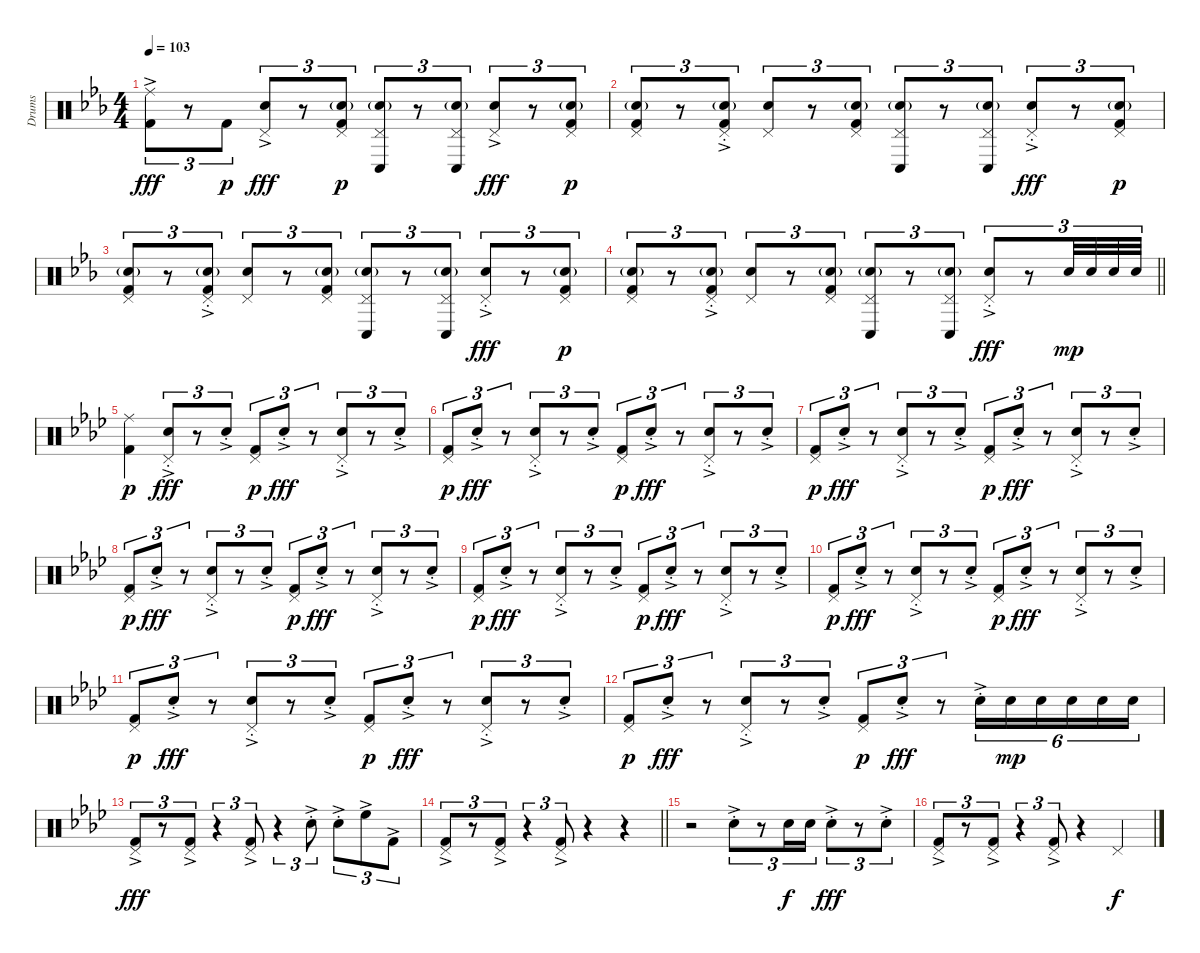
\track ("Drums" "Drums") {instrument percussion}
\staff {score}
\articulation defaults
\ts (4 4)
\tempo 103
\clef neutral
\ks eb
("Ride (middle)"{ac} "Kick (hit) 2"{ac}).8{tu (3 2) dy fff} r.8{tu (3 2)} "Kick (hit) 2".8{tu (3 2) dy p} ("Pedal Hi-Hat (hit)"{ac} "Snare (hit) 2"{ac}).8{tu (3 2) dy fff} r.8{tu (3 2)} ("Pedal Hi-Hat (hit)" "Snare (hit) 2"{g} "Kick (hit) 2").8{tu (3 2) dy p} ("Pedal Hi-Hat (hit)" "Snare (hit) 2"{g} "Conga low (hit)").8{tu (3 2)} r.8{tu (3 2)} ("Pedal Hi-Hat (hit)" "Snare (hit) 2"{g} "Conga low (hit)").8{tu (3 2)} ("Pedal Hi-Hat (hit)"{ac} "Snare (hit) 2"{ac}).8{tu (3 2) dy fff} r.8{tu (3 2)} ("Pedal Hi-Hat (hit)" "Snare (hit) 2"{g} "Kick (hit) 2").8{tu (3 2) dy p} |
("Pedal Hi-Hat (hit)" "Snare (hit) 2"{g} "Kick (hit) 2").8{tu (3 2)} r.8{tu (3 2)} ("Pedal Hi-Hat (hit)"{ac st} "Snare (hit) 2"{g} "Kick (hit) 2").8{tu (3 2)} ("Pedal Hi-Hat (hit)" "Snare (hit) 2").8{tu (3 2)} r.8{tu (3 2)} ("Pedal Hi-Hat (hit)" "Snare (hit) 2"{g} "Kick (hit) 2").8{tu (3 2)} ("Pedal Hi-Hat (hit)" "Snare (hit) 2"{g} "Conga low (hit)").8{tu (3 2)} r.8{tu (3 2)} ("Pedal Hi-Hat (hit)" "Snare (hit) 2"{g} "Conga low (hit)").8{tu (3 2)} ("Pedal Hi-Hat (hit)"{ac st} "Snare (hit) 2"{ac st}).8{tu (3 2) dy fff} r.8{tu (3 2)} ("Pedal Hi-Hat (hit)" "Snare (hit) 2"{g} "Kick (hit) 2").8{tu (3 2) dy p} |
("Pedal Hi-Hat (hit)" "Snare (hit) 2"{g} "Kick (hit) 2").8{tu (3 2)} r.8{tu (3 2)} ("Pedal Hi-Hat (hit)"{ac st} "Snare (hit) 2"{g} "Kick (hit) 2").8{tu (3 2)} ("Pedal Hi-Hat (hit)" "Snare (hit) 2").8{tu (3 2)} r.8{tu (3 2)} ("Pedal Hi-Hat (hit)" "Snare (hit) 2"{g} "Kick (hit) 2").8{tu (3 2)} ("Pedal Hi-Hat (hit)" "Snare (hit) 2"{g} "Conga low (hit)").8{tu (3 2)} r.8{tu (3 2)} ("Pedal Hi-Hat (hit)" "Snare (hit) 2"{g} "Conga low (hit)").8{tu (3 2)} ("Pedal Hi-Hat (hit)"{ac st} "Snare (hit) 2"{ac st}).8{tu (3 2) dy fff} r.8{tu (3 2)} ("Pedal Hi-Hat (hit)" "Snare (hit) 2"{g} "Kick (hit) 2").8{tu (3 2) dy p} |
\barLineRight lightlight
("Pedal Hi-Hat (hit)" "Snare (hit) 2"{g} "Kick (hit) 2").8{tu (3 2)} r.8{tu (3 2)} ("Pedal Hi-Hat (hit)"{ac st} "Snare (hit) 2"{g} "Kick (hit) 2").8{tu (3 2)} ("Pedal Hi-Hat (hit)" "Snare (hit) 2").8{tu (3 2)} r.8{tu (3 2)} ("Pedal Hi-Hat (hit)" "Snare (hit) 2"{g} "Kick (hit) 2").8{tu (3 2)} ("Pedal Hi-Hat (hit)" "Snare (hit) 2"{g} "Conga low (hit)").8{tu (3 2)} r.8{tu (3 2)} ("Pedal Hi-Hat (hit)" "Snare (hit) 2"{g} "Conga low (hit)").8{tu (3 2)} ("Pedal Hi-Hat (hit)"{ac st} "Snare (hit) 2"{ac st}).8{tu (3 2) dy fff} r.8{tu (3 2)} "Snare (hit) 2".32{tu (3 2) dy mp} "Snare (hit) 2".32{tu (3 2)} "Snare (hit) 2".32{tu (3 2)} "Snare (hit) 2".32{tu (3 2)} |
\ks ab
("Ride (middle)" "Kick (hit) 2").4{dy p} ("Pedal Hi-Hat (hit)"{ac st} "Snare (hit) 2"{ac st}).8{tu (3 2) dy fff} r.8{tu (3 2)} "Snare (hit) 2"{ac st}.8{tu (3 2)} ("Pedal Hi-Hat (hit)" "Kick (hit) 2").8{tu (3 2) dy p} "Snare (hit) 2"{ac st}.8{tu (3 2) dy fff} r.8{tu (3 2)} ("Pedal Hi-Hat (hit)"{ac st} "Snare (hit) 2"{ac st}).8{tu (3 2)} r.8{tu (3 2)} "Snare (hit) 2"{ac st}.8{tu (3 2)} |
("Pedal Hi-Hat (hit)" "Kick (hit) 2").8{tu (3 2) dy p} "Snare (hit) 2"{ac st}.8{tu (3 2) dy fff} r.8{tu (3 2)} ("Pedal Hi-Hat (hit)"{ac st} "Snare (hit) 2"{ac st}).8{tu (3 2)} r.8{tu (3 2)} "Snare (hit) 2"{ac st}.8{tu (3 2)} ("Pedal Hi-Hat (hit)" "Kick (hit) 2").8{tu (3 2) dy p} "Snare (hit) 2"{ac st}.8{tu (3 2) dy fff} r.8{tu (3 2)} ("Pedal Hi-Hat (hit)"{ac st} "Snare (hit) 2"{ac st}).8{tu (3 2)} r.8{tu (3 2)} "Snare (hit) 2"{ac st}.8{tu (3 2)} |
("Pedal Hi-Hat (hit)" "Kick (hit) 2").8{tu (3 2) dy p} "Snare (hit) 2"{ac st}.8{tu (3 2) dy fff} r.8{tu (3 2)} ("Pedal Hi-Hat (hit)"{ac st} "Snare (hit) 2"{ac st}).8{tu (3 2)} r.8{tu (3 2)} "Snare (hit) 2"{ac st}.8{tu (3 2)} ("Pedal Hi-Hat (hit)" "Kick (hit) 2").8{tu (3 2) dy p} "Snare (hit) 2"{ac st}.8{tu (3 2) dy fff} r.8{tu (3 2)} ("Pedal Hi-Hat (hit)"{ac st} "Snare (hit) 2"{ac st}).8{tu (3 2)} r.8{tu (3 2)} "Snare (hit) 2"{ac st}.8{tu (3 2)} |
("Pedal Hi-Hat (hit)" "Kick (hit) 2").8{tu (3 2) dy p} "Snare (hit) 2"{ac st}.8{tu (3 2) dy fff} r.8{tu (3 2)} ("Pedal Hi-Hat (hit)"{ac st} "Snare (hit) 2"{ac st}).8{tu (3 2)} r.8{tu (3 2)} "Snare (hit) 2"{ac st}.8{tu (3 2)} ("Pedal Hi-Hat (hit)" "Kick (hit) 2").8{tu (3 2) dy p} "Snare (hit) 2"{ac st}.8{tu (3 2) dy fff} r.8{tu (3 2)} ("Pedal Hi-Hat (hit)"{ac st} "Snare (hit) 2"{ac st}).8{tu (3 2)} r.8{tu (3 2)} "Snare (hit) 2"{ac st}.8{tu (3 2)} |
("Pedal Hi-Hat (hit)" "Kick (hit) 2").8{tu (3 2) dy p} "Snare (hit) 2"{ac st}.8{tu (3 2) dy fff} r.8{tu (3 2)} ("Pedal Hi-Hat (hit)"{ac st} "Snare (hit) 2"{ac st}).8{tu (3 2)} r.8{tu (3 2)} "Snare (hit) 2"{ac st}.8{tu (3 2)} ("Pedal Hi-Hat (hit)" "Kick (hit) 2").8{tu (3 2) dy p} "Snare (hit) 2"{ac st}.8{tu (3 2) dy fff} r.8{tu (3 2)} ("Pedal Hi-Hat (hit)"{ac st} "Snare (hit) 2"{ac st}).8{tu (3 2)} r.8{tu (3 2)} "Snare (hit) 2"{ac st}.8{tu (3 2)} |
("Pedal Hi-Hat (hit)" "Kick (hit) 2").8{tu (3 2) dy p} "Snare (hit) 2"{ac st}.8{tu (3 2) dy fff} r.8{tu (3 2)} ("Pedal Hi-Hat (hit)"{ac st} "Snare (hit) 2"{ac st}).8{tu (3 2)} r.8{tu (3 2)} "Snare (hit) 2"{ac st}.8{tu (3 2)} ("Pedal Hi-Hat (hit)" "Kick (hit) 2").8{tu (3 2) dy p} "Snare (hit) 2"{ac st}.8{tu (3 2) dy fff} r.8{tu (3 2)} ("Pedal Hi-Hat (hit)"{ac st} "Snare (hit) 2"{ac st}).8{tu (3 2)} r.8{tu (3 2)} "Snare (hit) 2"{ac st}.8{tu (3 2)} |
("Pedal Hi-Hat (hit)" "Kick (hit) 2").8{tu (3 2) dy p} "Snare (hit) 2"{ac st}.8{tu (3 2) dy fff} r.8{tu (3 2)} ("Pedal Hi-Hat (hit)"{ac st} "Snare (hit) 2"{ac st}).8{tu (3 2)} r.8{tu (3 2)} "Snare (hit) 2"{ac st}.8{tu (3 2)} ("Pedal Hi-Hat (hit)" "Kick (hit) 2").8{tu (3 2) dy p} "Snare (hit) 2"{ac st}.8{tu (3 2) dy fff} r.8{tu (3 2)} ("Pedal Hi-Hat (hit)"{ac st} "Snare (hit) 2"{ac st}).8{tu (3 2)} r.8{tu (3 2)} "Snare (hit) 2"{ac st}.8{tu (3 2)} |
("Pedal Hi-Hat (hit)" "Kick (hit) 2").8{tu (3 2) dy p} "Snare (hit) 2"{ac st}.8{tu (3 2) dy fff} r.8{tu (3 2)} ("Pedal Hi-Hat (hit)"{ac st} "Snare (hit) 2"{ac st}).8{tu (3 2)} r.8{tu (3 2)} "Snare (hit) 2"{ac st}.8{tu (3 2)} ("Pedal Hi-Hat (hit)" "Kick (hit) 2").8{tu (3 2) dy p} "Snare (hit) 2"{ac st}.8{tu (3 2) dy fff} r.8{tu (3 2)} "Snare (hit) 2"{ac st}.16{tu (6 4)} "Snare (hit) 2".16{tu (6 4) dy mp} "Snare (hit) 2".16{tu (6 4)} "Snare (hit) 2".16{tu (6 4)} "Snare (hit) 2".16{tu (6 4)} "Snare (hit) 2".16{tu (6 4)} |
("Pedal Hi-Hat (hit)"{ac} "Kick (hit) 2"{ac}).8{tu (3 2) dy fff} r.8{tu (3 2)} ("Pedal Hi-Hat (hit)"{ac} "Kick (hit) 2"{ac}).8{tu (3 2)} r.4{tu (3 2)} ("Pedal Hi-Hat (hit)"{ac} "Kick (hit) 2"{ac}).8{tu (3 2)} r.4{tu (3 2)} "Snare (hit) 2"{ac st}.8{tu (3 2)} "Snare (hit) 2"{ac st}.8{tu (3 2)} "High Floor Tom (hit)"{ac}.8{tu (3 2)} "Kick (hit) 2"{ac}.8{tu (3 2)} |
\barLineRight lightlight
("Pedal Hi-Hat (hit)"{ac} "Kick (hit) 2"{ac}).8{tu (3 2)} r.8{tu (3 2)} ("Pedal Hi-Hat (hit)"{ac} "Kick (hit) 2"{ac}).8{tu (3 2)} r.4{tu (3 2)} ("Pedal Hi-Hat (hit)"{ac} "Kick (hit) 2"{ac}).8{tu (3 2)} r.4 r.4 |
r.2 "Snare (hit) 2"{ac st}.8{tu (3 2)} r.8{tu (3 2)} "Snare (hit) 2".16{tu (3 2) dy f} "Snare (hit) 2".16{tu (3 2)} "Snare (hit) 2"{ac st}.8{tu (3 2) dy fff} r.8{tu (3 2)} "Snare (hit) 2"{ac st}.8{tu (3 2)} |
("Pedal Hi-Hat (hit)"{ac} "Kick (hit) 2"{ac}).8{tu (3 2)} r.8{tu (3 2)} ("Pedal Hi-Hat (hit)"{ac} "Kick (hit) 2"{ac}).8{tu (3 2)} r.4{tu (3 2)} ("Pedal Hi-Hat (hit)"{ac} "Kick (hit) 2"{ac}).8{tu (3 2)} r.4 "Pedal Hi-Hat (hit)".4{dy f}
